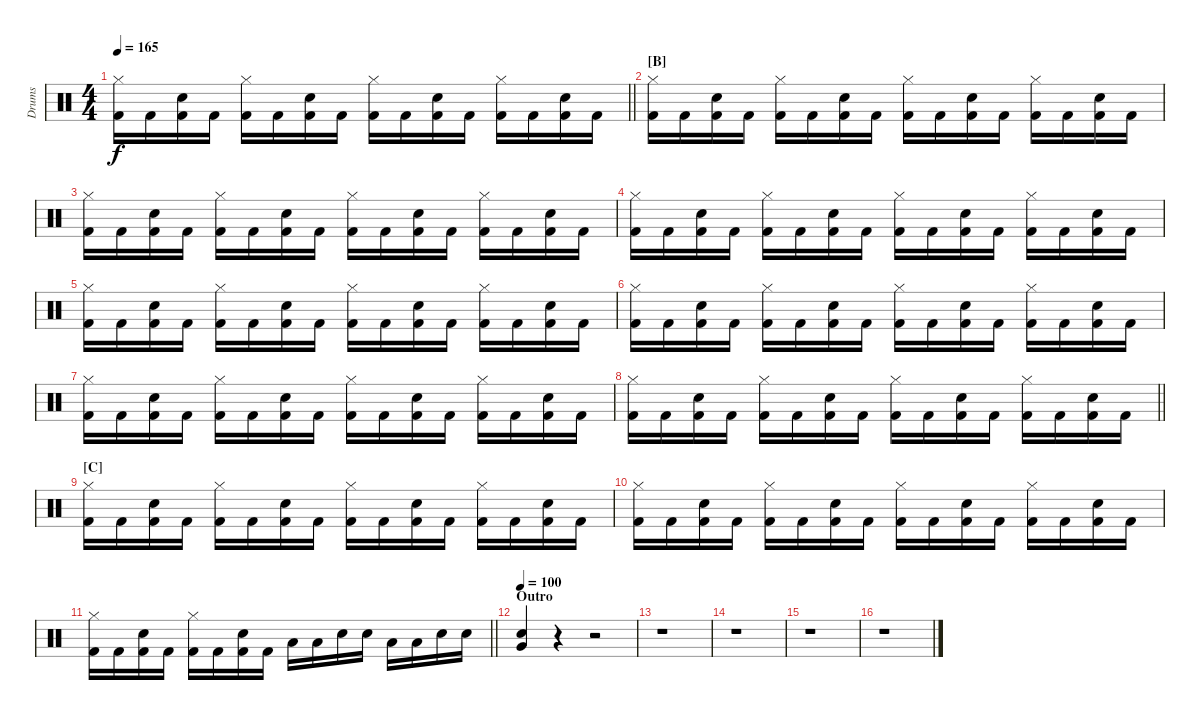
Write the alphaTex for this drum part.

\track ("Drums" "Drums") {instrument percussion}
\staff {score}
\articulation defaults
\ts (4 4)
\tempo 165
\clef neutral
\barLineRight lightlight
\ks c
("Hi-Hat (closed)" "Kick (hit) 2").16{dy f} "Kick (hit) 2".16 ("Electric Snare (hit)" "Kick (hit) 2").16 "Kick (hit) 2".16 ("Hi-Hat (closed)" "Kick (hit) 2").16 "Kick (hit) 2".16 ("Electric Snare (hit)" "Kick (hit) 2").16 "Kick (hit) 2".16 ("Hi-Hat (closed)" "Kick (hit) 2").16 "Kick (hit) 2".16 ("Electric Snare (hit)" "Kick (hit) 2").16 "Kick (hit) 2".16 ("Hi-Hat (closed)" "Kick (hit) 2").16 "Kick (hit) 2".16 ("Electric Snare (hit)" "Kick (hit) 2").16 "Kick (hit) 2".16 |
\section ("" "[B]")
("Hi-Hat (closed)" "Kick (hit) 2").16 "Kick (hit) 2".16 ("Electric Snare (hit)" "Kick (hit) 2").16 "Kick (hit) 2".16 ("Hi-Hat (closed)" "Kick (hit) 2").16 "Kick (hit) 2".16 ("Electric Snare (hit)" "Kick (hit) 2").16 "Kick (hit) 2".16 ("Hi-Hat (closed)" "Kick (hit) 2").16 "Kick (hit) 2".16 ("Electric Snare (hit)" "Kick (hit) 2").16 "Kick (hit) 2".16 ("Hi-Hat (closed)" "Kick (hit) 2").16 "Kick (hit) 2".16 ("Electric Snare (hit)" "Kick (hit) 2").16 "Kick (hit) 2".16 |
("Hi-Hat (closed)" "Kick (hit) 2").16 "Kick (hit) 2".16 ("Electric Snare (hit)" "Kick (hit) 2").16 "Kick (hit) 2".16 ("Hi-Hat (closed)" "Kick (hit) 2").16 "Kick (hit) 2".16 ("Electric Snare (hit)" "Kick (hit) 2").16 "Kick (hit) 2".16 ("Hi-Hat (closed)" "Kick (hit) 2").16 "Kick (hit) 2".16 ("Electric Snare (hit)" "Kick (hit) 2").16 "Kick (hit) 2".16 ("Hi-Hat (closed)" "Kick (hit) 2").16 "Kick (hit) 2".16 ("Electric Snare (hit)" "Kick (hit) 2").16 "Kick (hit) 2".16 |
("Hi-Hat (closed)" "Kick (hit) 2").16 "Kick (hit) 2".16 ("Electric Snare (hit)" "Kick (hit) 2").16 "Kick (hit) 2".16 ("Hi-Hat (closed)" "Kick (hit) 2").16 "Kick (hit) 2".16 ("Electric Snare (hit)" "Kick (hit) 2").16 "Kick (hit) 2".16 ("Hi-Hat (closed)" "Kick (hit) 2").16 "Kick (hit) 2".16 ("Electric Snare (hit)" "Kick (hit) 2").16 "Kick (hit) 2".16 ("Hi-Hat (closed)" "Kick (hit) 2").16 "Kick (hit) 2".16 ("Electric Snare (hit)" "Kick (hit) 2").16 "Kick (hit) 2".16 |
("Hi-Hat (closed)" "Kick (hit) 2").16 "Kick (hit) 2".16 ("Electric Snare (hit)" "Kick (hit) 2").16 "Kick (hit) 2".16 ("Hi-Hat (closed)" "Kick (hit) 2").16 "Kick (hit) 2".16 ("Electric Snare (hit)" "Kick (hit) 2").16 "Kick (hit) 2".16 ("Hi-Hat (closed)" "Kick (hit) 2").16 "Kick (hit) 2".16 ("Electric Snare (hit)" "Kick (hit) 2").16 "Kick (hit) 2".16 ("Hi-Hat (closed)" "Kick (hit) 2").16 "Kick (hit) 2".16 ("Electric Snare (hit)" "Kick (hit) 2").16 "Kick (hit) 2".16 |
("Hi-Hat (closed)" "Kick (hit) 2").16 "Kick (hit) 2".16 ("Electric Snare (hit)" "Kick (hit) 2").16 "Kick (hit) 2".16 ("Hi-Hat (closed)" "Kick (hit) 2").16 "Kick (hit) 2".16 ("Electric Snare (hit)" "Kick (hit) 2").16 "Kick (hit) 2".16 ("Hi-Hat (closed)" "Kick (hit) 2").16 "Kick (hit) 2".16 ("Electric Snare (hit)" "Kick (hit) 2").16 "Kick (hit) 2".16 ("Hi-Hat (closed)" "Kick (hit) 2").16 "Kick (hit) 2".16 ("Electric Snare (hit)" "Kick (hit) 2").16 "Kick (hit) 2".16 |
("Hi-Hat (closed)" "Kick (hit) 2").16 "Kick (hit) 2".16 ("Electric Snare (hit)" "Kick (hit) 2").16 "Kick (hit) 2".16 ("Hi-Hat (closed)" "Kick (hit) 2").16 "Kick (hit) 2".16 ("Electric Snare (hit)" "Kick (hit) 2").16 "Kick (hit) 2".16 ("Hi-Hat (closed)" "Kick (hit) 2").16 "Kick (hit) 2".16 ("Electric Snare (hit)" "Kick (hit) 2").16 "Kick (hit) 2".16 ("Hi-Hat (closed)" "Kick (hit) 2").16 "Kick (hit) 2".16 ("Electric Snare (hit)" "Kick (hit) 2").16 "Kick (hit) 2".16 |
\barLineRight lightlight
("Hi-Hat (closed)" "Kick (hit) 2").16 "Kick (hit) 2".16 ("Electric Snare (hit)" "Kick (hit) 2").16 "Kick (hit) 2".16 ("Hi-Hat (closed)" "Kick (hit) 2").16 "Kick (hit) 2".16 ("Electric Snare (hit)" "Kick (hit) 2").16 "Kick (hit) 2".16 ("Hi-Hat (closed)" "Kick (hit) 2").16 "Kick (hit) 2".16 ("Electric Snare (hit)" "Kick (hit) 2").16 "Kick (hit) 2".16 ("Hi-Hat (closed)" "Kick (hit) 2").16 "Kick (hit) 2".16 ("Electric Snare (hit)" "Kick (hit) 2").16 "Kick (hit) 2".16 |
\section ("" "[C]")
("Hi-Hat (closed)" "Kick (hit) 2").16 "Kick (hit) 2".16 ("Electric Snare (hit)" "Kick (hit) 2").16 "Kick (hit) 2".16 ("Hi-Hat (closed)" "Kick (hit) 2").16 "Kick (hit) 2".16 ("Electric Snare (hit)" "Kick (hit) 2").16 "Kick (hit) 2".16 ("Hi-Hat (closed)" "Kick (hit) 2").16 "Kick (hit) 2".16 ("Electric Snare (hit)" "Kick (hit) 2").16 "Kick (hit) 2".16 ("Hi-Hat (closed)" "Kick (hit) 2").16 "Kick (hit) 2".16 ("Electric Snare (hit)" "Kick (hit) 2").16 "Kick (hit) 2".16 |
("Hi-Hat (closed)" "Kick (hit) 2").16 "Kick (hit) 2".16 ("Electric Snare (hit)" "Kick (hit) 2").16 "Kick (hit) 2".16 ("Hi-Hat (closed)" "Kick (hit) 2").16 "Kick (hit) 2".16 ("Electric Snare (hit)" "Kick (hit) 2").16 "Kick (hit) 2".16 ("Hi-Hat (closed)" "Kick (hit) 2").16 "Kick (hit) 2".16 ("Electric Snare (hit)" "Kick (hit) 2").16 "Kick (hit) 2".16 ("Hi-Hat (closed)" "Kick (hit) 2").16 "Kick (hit) 2".16 ("Electric Snare (hit)" "Kick (hit) 2").16 "Kick (hit) 2".16 |
\barLineRight lightlight
("Hi-Hat (closed)" "Kick (hit) 2").16 "Kick (hit) 2".16 ("Electric Snare (hit)" "Kick (hit) 2").16 "Kick (hit) 2".16 ("Hi-Hat (closed)" "Kick (hit) 2").16 "Kick (hit) 2".16 ("Electric Snare (hit)" "Kick (hit) 2").16 "Kick (hit) 2".16 "Low Tom (hit)".16 "Low Tom (hit)".16 "Electric Snare (hit)".16 "Electric Snare (hit)".16 "Low Tom (hit)".16 "Low Tom (hit)".16 "Electric Snare (hit)".16 "Electric Snare (hit)".16 |
\section ("" "Outro")
\tempo 100
("Electric Snare (hit)" "Very Low Tom (hit)").4 r.4 r.2 |
r.1 |
r.1 |
r.1 |
r.1
